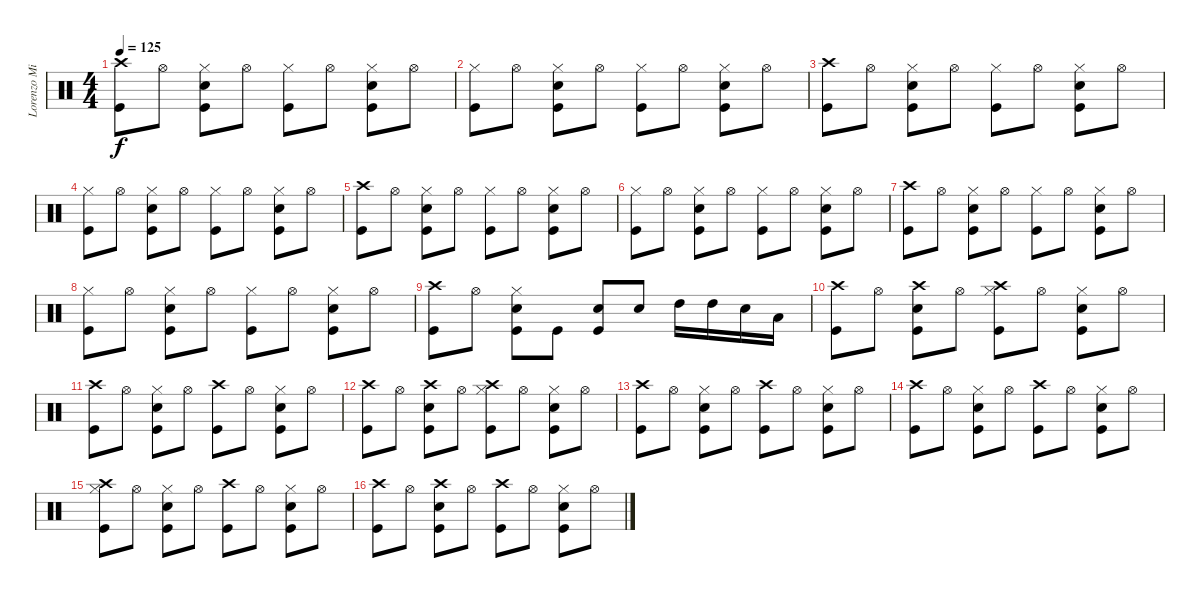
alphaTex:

\track ("Lorenzo Milani - drums" "Lorenzo Mi") {instrument percussion}
\staff {score}
\articulation defaults
\ts (4 4)
\tempo 125
\clef neutral
\ks c
("Crash high (hit)" "Kick (hit)").8{dy f} "Hi-Hat (open)".8 ("Electric Snare (hit)" "Hi-Hat (closed)" "Kick (hit)").8 "Hi-Hat (open)".8 ("Hi-Hat (closed)" "Kick (hit)").8 "Hi-Hat (open)".8 ("Electric Snare (hit)" "Hi-Hat (closed)" "Kick (hit)").8 "Hi-Hat (open)".8 |
("Hi-Hat (closed)" "Kick (hit)").8 "Hi-Hat (open)".8 ("Electric Snare (hit)" "Hi-Hat (closed)" "Kick (hit)").8 "Hi-Hat (open)".8 ("Hi-Hat (closed)" "Kick (hit)").8 "Hi-Hat (open)".8 ("Electric Snare (hit)" "Hi-Hat (closed)" "Kick (hit)").8 "Hi-Hat (open)".8 |
("Crash high (hit)" "Kick (hit)").8 "Hi-Hat (open)".8 ("Electric Snare (hit)" "Hi-Hat (closed)" "Kick (hit)").8 "Hi-Hat (open)".8 ("Hi-Hat (closed)" "Kick (hit)").8 "Hi-Hat (open)".8 ("Electric Snare (hit)" "Hi-Hat (closed)" "Kick (hit)").8 "Hi-Hat (open)".8 |
("Hi-Hat (closed)" "Kick (hit)").8 "Hi-Hat (open)".8 ("Electric Snare (hit)" "Hi-Hat (closed)" "Kick (hit)").8 "Hi-Hat (open)".8 ("Hi-Hat (closed)" "Kick (hit)").8 "Hi-Hat (open)".8 ("Electric Snare (hit)" "Hi-Hat (closed)" "Kick (hit)").8 "Hi-Hat (open)".8 |
("Crash high (hit)" "Kick (hit)").8 "Hi-Hat (open)".8 ("Electric Snare (hit)" "Hi-Hat (closed)" "Kick (hit)").8 "Hi-Hat (open)".8 ("Hi-Hat (closed)" "Kick (hit)").8 "Hi-Hat (open)".8 ("Electric Snare (hit)" "Hi-Hat (closed)" "Kick (hit)").8 "Hi-Hat (open)".8 |
("Hi-Hat (closed)" "Kick (hit)").8 "Hi-Hat (open)".8 ("Electric Snare (hit)" "Hi-Hat (closed)" "Kick (hit)").8 "Hi-Hat (open)".8 ("Hi-Hat (closed)" "Kick (hit)").8 "Hi-Hat (open)".8 ("Electric Snare (hit)" "Hi-Hat (closed)" "Kick (hit)").8 "Hi-Hat (open)".8 |
("Crash high (hit)" "Kick (hit)").8 "Hi-Hat (open)".8 ("Electric Snare (hit)" "Hi-Hat (closed)" "Kick (hit)").8 "Hi-Hat (open)".8 ("Hi-Hat (closed)" "Kick (hit)").8 "Hi-Hat (open)".8 ("Electric Snare (hit)" "Hi-Hat (closed)" "Kick (hit)").8 "Hi-Hat (open)".8 |
("Hi-Hat (closed)" "Kick (hit)").8 "Hi-Hat (open)".8 ("Electric Snare (hit)" "Hi-Hat (closed)" "Kick (hit)").8 "Hi-Hat (open)".8 ("Hi-Hat (closed)" "Kick (hit)").8 "Hi-Hat (open)".8 ("Electric Snare (hit)" "Hi-Hat (closed)" "Kick (hit)").8 "Hi-Hat (open)".8 |
("Crash high (hit)" "Kick (hit)").8 "Hi-Hat (open)".8 ("Electric Snare (hit)" "Hi-Hat (closed)" "Kick (hit)").8 "Kick (hit)".8 ("Electric Snare (hit)" "Kick (hit)").8 "Electric Snare (hit)".8 "High Tom (hit)".16 "High Tom (hit)".16 "Electric Snare (hit)".16 "Low Tom (hit)".16 |
("Crash high (hit)" "Kick (hit)").8 "Hi-Hat (open)".8 ("Crash high (hit)" "Electric Snare (hit)" "Kick (hit)").8 "Hi-Hat (open)".8 ("Crash high (hit)" "Hi-Hat (closed)" "Kick (hit)").8 "Hi-Hat (open)".8 ("Electric Snare (hit)" "Hi-Hat (closed)" "Kick (hit)").8 "Hi-Hat (open)".8 |
("Crash high (hit)" "Kick (hit)").8 "Hi-Hat (open)".8 ("Electric Snare (hit)" "Hi-Hat (closed)" "Kick (hit)").8 "Hi-Hat (open)".8 ("Crash high (hit)" "Kick (hit)").8 "Hi-Hat (open)".8 ("Electric Snare (hit)" "Hi-Hat (closed)" "Kick (hit)").8 "Hi-Hat (open)".8 |
("Crash high (hit)" "Kick (hit)").8 "Hi-Hat (open)".8 ("Crash high (hit)" "Electric Snare (hit)" "Kick (hit)").8 "Hi-Hat (open)".8 ("Crash high (hit)" "Hi-Hat (closed)" "Kick (hit)").8 "Hi-Hat (open)".8 ("Electric Snare (hit)" "Hi-Hat (closed)" "Kick (hit)").8 "Hi-Hat (open)".8 |
("Crash high (hit)" "Kick (hit)").8 "Hi-Hat (open)".8 ("Electric Snare (hit)" "Hi-Hat (closed)" "Kick (hit)").8 "Hi-Hat (open)".8 ("Crash high (hit)" "Kick (hit)").8 "Hi-Hat (open)".8 ("Electric Snare (hit)" "Hi-Hat (closed)" "Kick (hit)").8 "Hi-Hat (open)".8 |
("Crash high (hit)" "Kick (hit)").8 "Hi-Hat (open)".8 ("Electric Snare (hit)" "Hi-Hat (closed)" "Kick (hit)").8 "Hi-Hat (open)".8 ("Crash high (hit)" "Kick (hit)").8 "Hi-Hat (open)".8 ("Electric Snare (hit)" "Hi-Hat (closed)" "Kick (hit)").8 "Hi-Hat (open)".8 |
("Crash high (hit)" "Hi-Hat (closed)" "Kick (hit)").8 "Hi-Hat (open)".8 ("Electric Snare (hit)" "Hi-Hat (closed)" "Kick (hit)").8 "Hi-Hat (open)".8 ("Crash high (hit)" "Kick (hit)").8 "Hi-Hat (open)".8 ("Electric Snare (hit)" "Hi-Hat (closed)" "Kick (hit)").8 "Hi-Hat (open)".8 |
("Crash high (hit)" "Kick (hit)").8 "Hi-Hat (open)".8 ("Crash high (hit)" "Electric Snare (hit)" "Kick (hit)").8 "Hi-Hat (open)".8 ("Crash high (hit)" "Kick (hit)").8 "Hi-Hat (open)".8 ("Electric Snare (hit)" "Hi-Hat (closed)" "Kick (hit)").8 "Hi-Hat (open)".8
